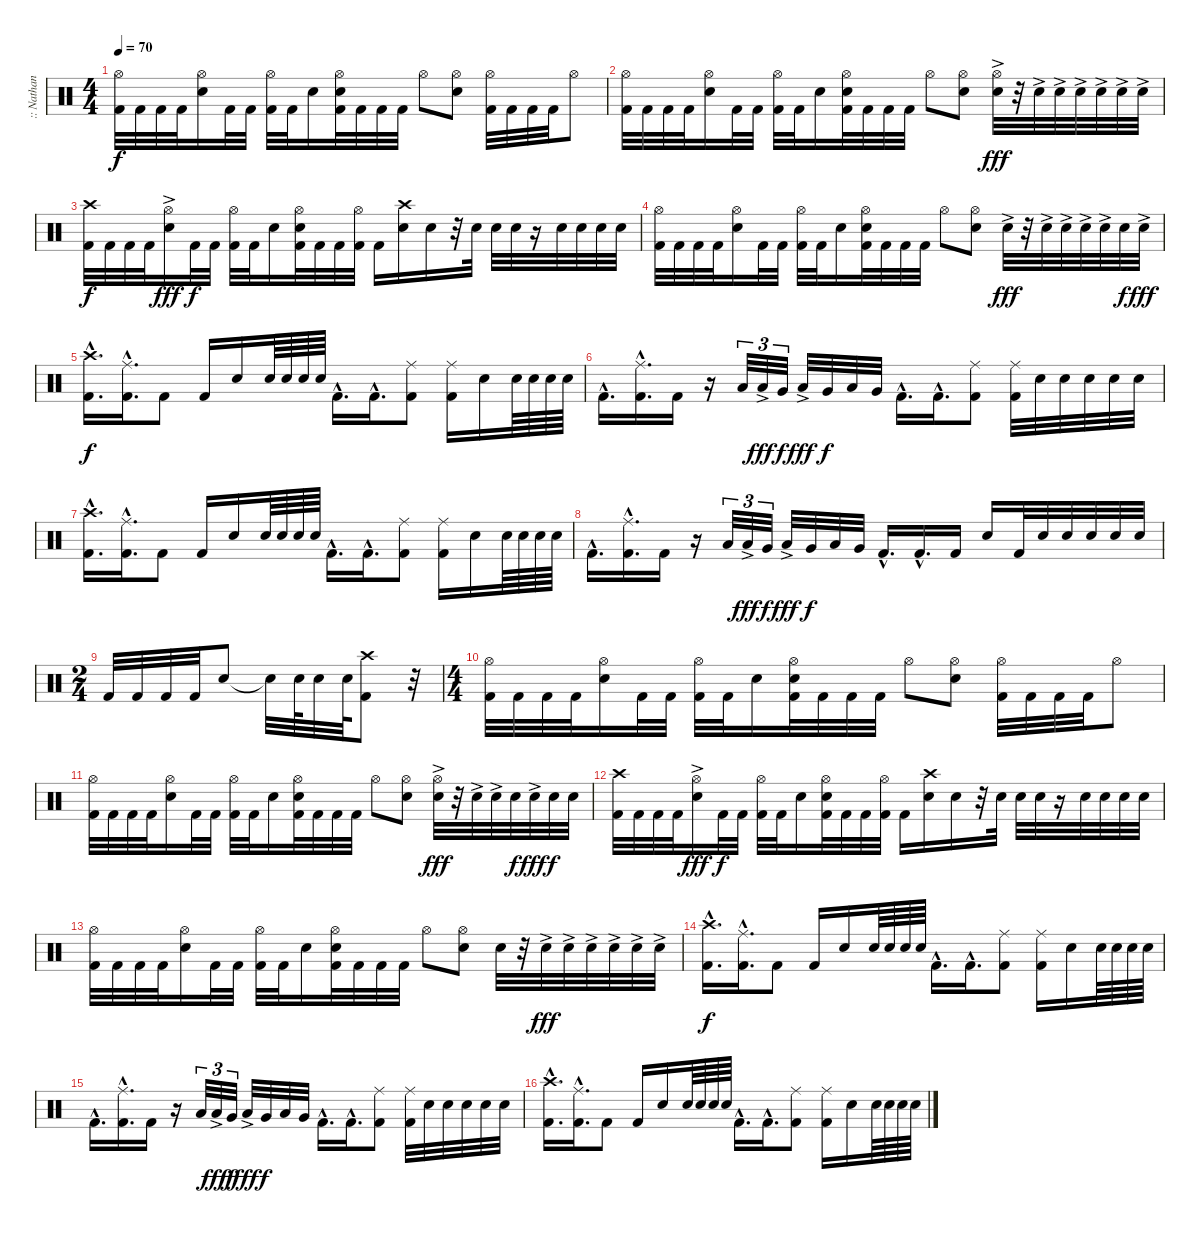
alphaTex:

\track (":: Nathan Jonas Jordison #1 ::" ":: Nathan ") {instrument percussion}
\staff {score}
\articulation defaults
\ts (4 4)
\tempo 70
\clef neutral
\ks c
("Hi-Hat (open)" "Kick (hit) 2").32{dy f} "Kick (hit) 2".32 "Kick (hit) 2".32 "Kick (hit) 2".32 ("Hi-Hat (open)" "Electric Snare (hit)").16 "Kick (hit) 2".32 "Kick (hit) 2".32 ("Hi-Hat (open)" "Kick (hit) 2").32 "Kick (hit) 2".32 "Electric Snare (hit)".16 ("Hi-Hat (open)" "Electric Snare (hit)" "Kick (hit) 2").32 "Kick (hit) 2".32 "Kick (hit) 2".32 "Kick (hit) 2".32 "Hi-Hat (open)".8 ("Hi-Hat (open)" "Electric Snare (hit)").8 ("Hi-Hat (open)" "Kick (hit) 2").32 "Kick (hit) 2".32 "Kick (hit) 2".32 "Kick (hit) 2".32 "Hi-Hat (open)".8 |
("Hi-Hat (open)" "Kick (hit) 2").32 "Kick (hit) 2".32 "Kick (hit) 2".32 "Kick (hit) 2".32 ("Hi-Hat (open)" "Electric Snare (hit)").16 "Kick (hit) 2".32 "Kick (hit) 2".32 ("Hi-Hat (open)" "Kick (hit) 2").32 "Kick (hit) 2".32 "Electric Snare (hit)".16 ("Hi-Hat (open)" "Electric Snare (hit)" "Kick (hit) 2").32 "Kick (hit) 2".32 "Kick (hit) 2".32 "Kick (hit) 2".32 "Hi-Hat (open)".8 ("Hi-Hat (open)" "Electric Snare (hit)").8 ("Hi-Hat (open)" "Electric Snare (hit)"{ac}).32{dy fff} r.32 "Electric Snare (hit)"{ac}.32 "Electric Snare (hit)"{ac}.32 "Electric Snare (hit)"{ac}.32 "Electric Snare (hit)"{ac}.32 "Electric Snare (hit)"{ac}.32 "Electric Snare (hit)"{ac}.32 |
("Crash high (hit)" "Kick (hit) 2").32{dy f} "Kick (hit) 2".32 "Kick (hit) 2".32 "Kick (hit) 2".32 ("Hi-Hat (open)" "Electric Snare (hit)"{ac}).16{dy fff} "Kick (hit) 2".32{dy f} "Kick (hit) 2".32 ("Hi-Hat (open)" "Kick (hit) 2").32 "Kick (hit) 2".32 "Electric Snare (hit)".16 ("Hi-Hat (open)" "Electric Snare (hit)" "Kick (hit) 2").32 "Kick (hit) 2".32 "Kick (hit) 2".32 ("Hi-Hat (open)" "Kick (hit) 2").32 "Kick (hit) 2".16 ("Crash high (hit)" "Electric Snare (hit)").16 "Electric Snare (hit)".16 r.32 "Electric Snare (hit)".32 "Electric Snare (hit)".32 "Electric Snare (hit)".32 r.16 "Electric Snare (hit)".32 "Electric Snare (hit)".32 "Electric Snare (hit)".32 "Electric Snare (hit)".32 |
("Hi-Hat (open)" "Kick (hit) 2").32 "Kick (hit) 2".32 "Kick (hit) 2".32 "Kick (hit) 2".32 ("Hi-Hat (open)" "Electric Snare (hit)").16 "Kick (hit) 2".32 "Kick (hit) 2".32 ("Hi-Hat (open)" "Kick (hit) 2").32 "Kick (hit) 2".32 "Electric Snare (hit)".16 ("Hi-Hat (open)" "Electric Snare (hit)" "Kick (hit) 2").32 "Kick (hit) 2".32 "Kick (hit) 2".32 "Kick (hit) 2".32 "Hi-Hat (open)".8 ("Hi-Hat (open)" "Electric Snare (hit)").8 "Electric Snare (hit)"{ac}.32{dy fff} r.32 "Electric Snare (hit)"{ac}.32 "Electric Snare (hit)"{ac}.32 "Electric Snare (hit)"{ac}.32 "Electric Snare (hit)"{ac}.32 "Electric Snare (hit)".32{dy f} "Electric Snare (hit)"{ac}.32{dy fff} |
("Crash high (hit)"{hac} "Kick (hit) 2"{hac}).16{d dy f} ("Ride (middle)"{hac} "Kick (hit) 2"{hac}).16{d} "Kick (hit) 2".8 "Kick (hit) 2".16 "Electric Snare (hit)".16 "Electric Snare (hit)".64 "Electric Snare (hit)".64 "Electric Snare (hit)".64 "Electric Snare (hit)".64 "Kick (hit) 2"{hac}.16{d} "Kick (hit) 2"{hac}.16{d} ("Ride (middle)" "Kick (hit) 2").8 ("Ride (middle)" "Kick (hit) 2").16 "Electric Snare (hit)".16 "Electric Snare (hit)".64 "Electric Snare (hit)".64 "Electric Snare (hit)".64 "Electric Snare (hit)".64 |
"Kick (hit) 2"{hac}.16{d} ("Ride (middle)"{hac} "Kick (hit) 2"{hac}).16{d} "Kick (hit) 2".16 r.16 "Low Floor Tom (hit)".32{tu (3 2)} "Low Floor Tom (hit)"{ac}.32{tu (3 2) dy fff} "Very Low Tom (hit)".32{tu (3 2) dy f} "Low Tom (hit)"{ac}.32{dy fff} "Very Low Tom (hit)".32{dy f} "Low Floor Tom (hit)".32 "Very Low Tom (hit)".32 "Kick (hit) 2"{hac}.16{d} "Kick (hit) 2"{hac}.16{d} ("Ride (middle)" "Kick (hit) 2").8 ("Ride (middle)" "Kick (hit) 2").32 "Electric Snare (hit)".32 "Snare (hit) 2".32 "Electric Snare (hit)".32 "Electric Snare (hit)".32 "Electric Snare (hit)".32 |
("Crash high (hit)"{hac} "Kick (hit) 2"{hac}).16{d} ("Ride (middle)"{hac} "Kick (hit) 2"{hac}).16{d} "Kick (hit) 2".8 "Kick (hit) 2".16 "Electric Snare (hit)".16 "Electric Snare (hit)".64 "Electric Snare (hit)".64 "Electric Snare (hit)".64 "Electric Snare (hit)".64 "Kick (hit) 2"{hac}.16{d} "Kick (hit) 2"{hac}.16{d} ("Ride (middle)" "Kick (hit) 2").8 ("Ride (middle)" "Kick (hit) 2").16 "Electric Snare (hit)".16 "Electric Snare (hit)".64 "Electric Snare (hit)".64 "Electric Snare (hit)".64 "Electric Snare (hit)".64 |
"Kick (hit) 2"{hac}.16{d} ("Ride (middle)"{hac} "Kick (hit) 2"{hac}).16{d} "Kick (hit) 2".16 r.16 "Low Floor Tom (hit)".32{tu (3 2)} "Low Floor Tom (hit)"{ac}.32{tu (3 2) dy fff} "Very Low Tom (hit)".32{tu (3 2) dy f} "Low Tom (hit)"{ac}.32{dy fff} "Very Low Tom (hit)".32{dy f} "Low Floor Tom (hit)".32 "Very Low Tom (hit)".32 "Kick (hit) 2"{hac}.16{d} "Kick (hit) 2"{hac}.16{d} "Kick (hit) 2".16 "Electric Snare (hit)".16 "Kick (hit) 2".32 "Electric Snare (hit)".32 "Snare (hit) 2".32 "Electric Snare (hit)".32 "Electric Snare (hit)".32 "Electric Snare (hit)".32 |
\ts (2 4)
"Kick (hit) 2".32 "Kick (hit) 2".32 "Kick (hit) 2".32 "Kick (hit) 2".32 "Snare (hit)".8 "Snare (hit)"{t}.32 "Electric Snare (hit)".64 "Electric Snare (hit)".32 "Electric Snare (hit)".64 ("Crash high (hit)" "Kick (hit) 2").8 r.32 |
\ts (4 4)
("Hi-Hat (open)" "Kick (hit) 2").32 "Kick (hit) 2".32 "Kick (hit) 2".32 "Kick (hit) 2".32 ("Hi-Hat (open)" "Electric Snare (hit)").16 "Kick (hit) 2".32 "Kick (hit) 2".32 ("Hi-Hat (open)" "Kick (hit) 2").32 "Kick (hit) 2".32 "Electric Snare (hit)".16 ("Hi-Hat (open)" "Electric Snare (hit)" "Kick (hit) 2").32 "Kick (hit) 2".32 "Kick (hit) 2".32 "Kick (hit) 2".32 "Hi-Hat (open)".8 ("Hi-Hat (open)" "Electric Snare (hit)").8 ("Hi-Hat (open)" "Kick (hit) 2").32 "Kick (hit) 2".32 "Kick (hit) 2".32 "Kick (hit) 2".32 "Hi-Hat (open)".8 |
("Hi-Hat (open)" "Kick (hit) 2").32 "Kick (hit) 2".32 "Kick (hit) 2".32 "Kick (hit) 2".32 ("Hi-Hat (open)" "Electric Snare (hit)").16 "Kick (hit) 2".32 "Kick (hit) 2".32 ("Hi-Hat (open)" "Kick (hit) 2").32 "Kick (hit) 2".32 "Electric Snare (hit)".16 ("Hi-Hat (open)" "Electric Snare (hit)" "Kick (hit) 2").32 "Kick (hit) 2".32 "Kick (hit) 2".32 "Kick (hit) 2".32 "Hi-Hat (open)".8 ("Hi-Hat (open)" "Electric Snare (hit)").8 ("Hi-Hat (open)" "Electric Snare (hit)"{ac}).32{dy fff} r.32 "Electric Snare (hit)"{ac}.32 "Electric Snare (hit)"{ac}.32 "Electric Snare (hit)".32{dy f} "Electric Snare (hit)"{ac}.32{dy fff} "Electric Snare (hit)".32{dy f} "Electric Snare (hit)".32 |
("Crash high (hit)" "Kick (hit) 2").32 "Kick (hit) 2".32 "Kick (hit) 2".32 "Kick (hit) 2".32 ("Hi-Hat (open)" "Electric Snare (hit)"{ac}).16{dy fff} "Kick (hit) 2".32{dy f} "Kick (hit) 2".32 ("Hi-Hat (open)" "Kick (hit) 2").32 "Kick (hit) 2".32 "Electric Snare (hit)".16 ("Hi-Hat (open)" "Electric Snare (hit)" "Kick (hit) 2").32 "Kick (hit) 2".32 "Kick (hit) 2".32 ("Hi-Hat (open)" "Kick (hit) 2").32 "Kick (hit) 2".16 ("Crash high (hit)" "Electric Snare (hit)").16 "Electric Snare (hit)".16 r.32 "Electric Snare (hit)".32 "Electric Snare (hit)".32 "Electric Snare (hit)".32 r.16 "Electric Snare (hit)".32 "Electric Snare (hit)".32 "Electric Snare (hit)".32 "Electric Snare (hit)".32 |
("Hi-Hat (open)" "Kick (hit) 2").32 "Kick (hit) 2".32 "Kick (hit) 2".32 "Kick (hit) 2".32 ("Hi-Hat (open)" "Electric Snare (hit)").16 "Kick (hit) 2".32 "Kick (hit) 2".32 ("Hi-Hat (open)" "Kick (hit) 2").32 "Kick (hit) 2".32 "Electric Snare (hit)".16 ("Hi-Hat (open)" "Electric Snare (hit)" "Kick (hit) 2").32 "Kick (hit) 2".32 "Kick (hit) 2".32 "Kick (hit) 2".32 "Hi-Hat (open)".8 ("Hi-Hat (open)" "Electric Snare (hit)").8 "Electric Snare (hit)".32 r.32 "Electric Snare (hit)"{ac}.32{dy fff} "Electric Snare (hit)"{ac}.32 "Electric Snare (hit)"{ac}.32 "Electric Snare (hit)"{ac}.32 "Electric Snare (hit)"{ac}.32 "Electric Snare (hit)"{ac}.32 |
("Crash high (hit)"{hac} "Kick (hit) 2"{hac}).16{d dy f} ("Ride (middle)"{hac} "Kick (hit) 2"{hac}).16{d} "Kick (hit) 2".8 "Kick (hit) 2".16 "Electric Snare (hit)".16 "Electric Snare (hit)".64 "Electric Snare (hit)".64 "Electric Snare (hit)".64 "Electric Snare (hit)".64 "Kick (hit) 2"{hac}.16{d} "Kick (hit) 2"{hac}.16{d} ("Ride (middle)" "Kick (hit) 2").8 ("Ride (middle)" "Kick (hit) 2").16 "Electric Snare (hit)".16 "Electric Snare (hit)".64 "Electric Snare (hit)".64 "Electric Snare (hit)".64 "Electric Snare (hit)".64 |
"Kick (hit) 2"{hac}.16{d} ("Ride (middle)"{hac} "Kick (hit) 2"{hac}).16{d} "Kick (hit) 2".16 r.16 "Low Floor Tom (hit)".32{tu (3 2)} "Low Floor Tom (hit)"{ac}.32{tu (3 2) dy fff} "Very Low Tom (hit)".32{tu (3 2) dy f} "Low Tom (hit)"{ac}.32{dy fff} "Very Low Tom (hit)".32{dy f} "Low Floor Tom (hit)".32 "Very Low Tom (hit)".32 "Kick (hit) 2"{hac}.16{d} "Kick (hit) 2"{hac}.16{d} ("Ride (middle)" "Kick (hit) 2").8 ("Ride (middle)" "Kick (hit) 2").32 "Electric Snare (hit)".32 "Snare (hit) 2".32 "Electric Snare (hit)".32 "Electric Snare (hit)".32 "Electric Snare (hit)".32 |
("Crash high (hit)"{hac} "Kick (hit) 2"{hac}).16{d} ("Ride (middle)"{hac} "Kick (hit) 2"{hac}).16{d} "Kick (hit) 2".8 "Kick (hit) 2".16 "Electric Snare (hit)".16 "Electric Snare (hit)".64 "Electric Snare (hit)".64 "Electric Snare (hit)".64 "Electric Snare (hit)".64 "Kick (hit) 2"{hac}.16{d} "Kick (hit) 2"{hac}.16{d} ("Ride (middle)" "Kick (hit) 2").8 ("Ride (middle)" "Kick (hit) 2").16 "Electric Snare (hit)".16 "Electric Snare (hit)".64 "Electric Snare (hit)".64 "Electric Snare (hit)".64 "Electric Snare (hit)".64
